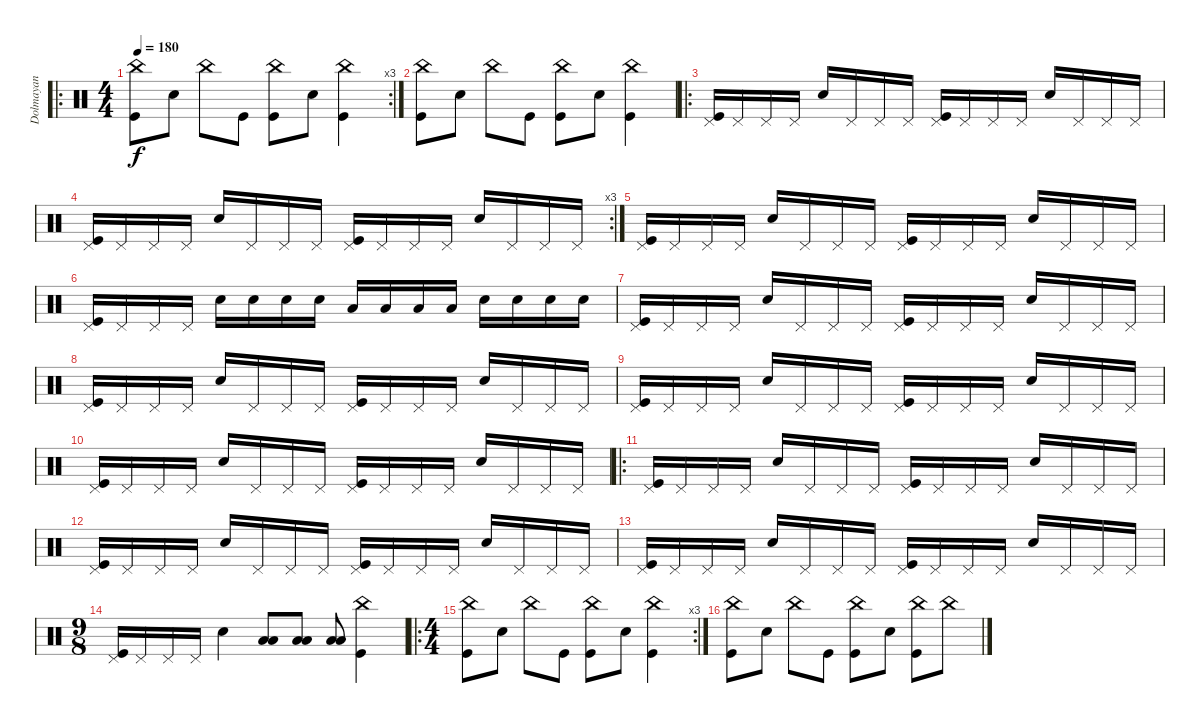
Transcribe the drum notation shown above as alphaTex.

\track ("Dolmayan" "Dolmayan") {instrument percussion}
\staff {score}
\articulation defaults
\ro
\rc 3
\ts (4 4)
\tempo 180
\clef neutral
\ks c
("China (hit)" "Kick (hit)").8{dy f} "Snare (hit) 2".8 "China (hit)".8 "Kick (hit)".8 ("China (hit)" "Kick (hit)").8 "Snare (hit) 2".8 ("China (hit)" "Kick (hit)").4 |
("China (hit)" "Kick (hit)").8 "Snare (hit) 2".8 "China (hit)".8 "Kick (hit)".8 ("China (hit)" "Kick (hit)").8 "Snare (hit) 2".8 ("China (hit)" "Kick (hit)").4 |
\ro
("Pedal Hi-Hat (hit)" "Kick (hit)").16 "Pedal Hi-Hat (hit)".16 "Pedal Hi-Hat (hit)".16 "Pedal Hi-Hat (hit)".16 "Snare (hit) 2".16 "Pedal Hi-Hat (hit)".16 "Pedal Hi-Hat (hit)".16 "Pedal Hi-Hat (hit)".16 ("Pedal Hi-Hat (hit)" "Kick (hit)").16 "Pedal Hi-Hat (hit)".16 "Pedal Hi-Hat (hit)".16 "Pedal Hi-Hat (hit)".16 "Snare (hit) 2".16 "Pedal Hi-Hat (hit)".16 "Pedal Hi-Hat (hit)".16 "Pedal Hi-Hat (hit)".16 |
\rc 3
("Pedal Hi-Hat (hit)" "Kick (hit)").16 "Pedal Hi-Hat (hit)".16 "Pedal Hi-Hat (hit)".16 "Pedal Hi-Hat (hit)".16 "Snare (hit) 2".16 "Pedal Hi-Hat (hit)".16 "Pedal Hi-Hat (hit)".16 "Pedal Hi-Hat (hit)".16 ("Pedal Hi-Hat (hit)" "Kick (hit)").16 "Pedal Hi-Hat (hit)".16 "Pedal Hi-Hat (hit)".16 "Pedal Hi-Hat (hit)".16 "Snare (hit) 2".16 "Pedal Hi-Hat (hit)".16 "Pedal Hi-Hat (hit)".16 "Pedal Hi-Hat (hit)".16 |
("Pedal Hi-Hat (hit)" "Kick (hit)").16 "Pedal Hi-Hat (hit)".16 "Pedal Hi-Hat (hit)".16 "Pedal Hi-Hat (hit)".16 "Snare (hit) 2".16 "Pedal Hi-Hat (hit)".16 "Pedal Hi-Hat (hit)".16 "Pedal Hi-Hat (hit)".16 ("Pedal Hi-Hat (hit)" "Kick (hit)").16 "Pedal Hi-Hat (hit)".16 "Pedal Hi-Hat (hit)".16 "Pedal Hi-Hat (hit)".16 "Snare (hit) 2".16 "Pedal Hi-Hat (hit)".16 "Pedal Hi-Hat (hit)".16 "Pedal Hi-Hat (hit)".16 |
("Pedal Hi-Hat (hit)" "Kick (hit)").16 "Pedal Hi-Hat (hit)".16 "Pedal Hi-Hat (hit)".16 "Pedal Hi-Hat (hit)".16 "Snare (hit) 2".16 "Snare (hit) 2".16 "Snare (hit) 2".16 "Snare (hit) 2".16 "Low Tom (hit)".16 "Low Tom (hit)".16 "Low Tom (hit)".16 "Low Tom (hit)".16 "Snare (hit) 2".16 "Snare (hit) 2".16 "Snare (hit) 2".16 "Snare (hit) 2".16 |
("Pedal Hi-Hat (hit)" "Kick (hit)").16 "Pedal Hi-Hat (hit)".16 "Pedal Hi-Hat (hit)".16 "Pedal Hi-Hat (hit)".16 "Snare (hit) 2".16 "Pedal Hi-Hat (hit)".16 "Pedal Hi-Hat (hit)".16 "Pedal Hi-Hat (hit)".16 ("Pedal Hi-Hat (hit)" "Kick (hit)").16 "Pedal Hi-Hat (hit)".16 "Pedal Hi-Hat (hit)".16 "Pedal Hi-Hat (hit)".16 "Snare (hit) 2".16 "Pedal Hi-Hat (hit)".16 "Pedal Hi-Hat (hit)".16 "Pedal Hi-Hat (hit)".16 |
("Pedal Hi-Hat (hit)" "Kick (hit)").16 "Pedal Hi-Hat (hit)".16 "Pedal Hi-Hat (hit)".16 "Pedal Hi-Hat (hit)".16 "Snare (hit) 2".16 "Pedal Hi-Hat (hit)".16 "Pedal Hi-Hat (hit)".16 "Pedal Hi-Hat (hit)".16 ("Pedal Hi-Hat (hit)" "Kick (hit)").16 "Pedal Hi-Hat (hit)".16 "Pedal Hi-Hat (hit)".16 "Pedal Hi-Hat (hit)".16 "Snare (hit) 2".16 "Pedal Hi-Hat (hit)".16 "Pedal Hi-Hat (hit)".16 "Pedal Hi-Hat (hit)".16 |
("Pedal Hi-Hat (hit)" "Kick (hit)").16 "Pedal Hi-Hat (hit)".16 "Pedal Hi-Hat (hit)".16 "Pedal Hi-Hat (hit)".16 "Snare (hit) 2".16 "Pedal Hi-Hat (hit)".16 "Pedal Hi-Hat (hit)".16 "Pedal Hi-Hat (hit)".16 ("Pedal Hi-Hat (hit)" "Kick (hit)").16 "Pedal Hi-Hat (hit)".16 "Pedal Hi-Hat (hit)".16 "Pedal Hi-Hat (hit)".16 "Snare (hit) 2".16 "Pedal Hi-Hat (hit)".16 "Pedal Hi-Hat (hit)".16 "Pedal Hi-Hat (hit)".16 |
("Pedal Hi-Hat (hit)" "Kick (hit)").16 "Pedal Hi-Hat (hit)".16 "Pedal Hi-Hat (hit)".16 "Pedal Hi-Hat (hit)".16 "Snare (hit) 2".16 "Pedal Hi-Hat (hit)".16 "Pedal Hi-Hat (hit)".16 "Pedal Hi-Hat (hit)".16 ("Pedal Hi-Hat (hit)" "Kick (hit)").16 "Pedal Hi-Hat (hit)".16 "Pedal Hi-Hat (hit)".16 "Pedal Hi-Hat (hit)".16 "Snare (hit) 2".16 "Pedal Hi-Hat (hit)".16 "Pedal Hi-Hat (hit)".16 "Pedal Hi-Hat (hit)".16 |
\ro
("Pedal Hi-Hat (hit)" "Kick (hit)").16 "Pedal Hi-Hat (hit)".16 "Pedal Hi-Hat (hit)".16 "Pedal Hi-Hat (hit)".16 "Snare (hit) 2".16 "Pedal Hi-Hat (hit)".16 "Pedal Hi-Hat (hit)".16 "Pedal Hi-Hat (hit)".16 ("Pedal Hi-Hat (hit)" "Kick (hit)").16 "Pedal Hi-Hat (hit)".16 "Pedal Hi-Hat (hit)".16 "Pedal Hi-Hat (hit)".16 "Snare (hit) 2".16 "Pedal Hi-Hat (hit)".16 "Pedal Hi-Hat (hit)".16 "Pedal Hi-Hat (hit)".16 |
("Pedal Hi-Hat (hit)" "Kick (hit)").16 "Pedal Hi-Hat (hit)".16 "Pedal Hi-Hat (hit)".16 "Pedal Hi-Hat (hit)".16 "Snare (hit) 2".16 "Pedal Hi-Hat (hit)".16 "Pedal Hi-Hat (hit)".16 "Pedal Hi-Hat (hit)".16 ("Pedal Hi-Hat (hit)" "Kick (hit)").16 "Pedal Hi-Hat (hit)".16 "Pedal Hi-Hat (hit)".16 "Pedal Hi-Hat (hit)".16 "Snare (hit) 2".16 "Pedal Hi-Hat (hit)".16 "Pedal Hi-Hat (hit)".16 "Pedal Hi-Hat (hit)".16 |
("Pedal Hi-Hat (hit)" "Kick (hit)").16 "Pedal Hi-Hat (hit)".16 "Pedal Hi-Hat (hit)".16 "Pedal Hi-Hat (hit)".16 "Snare (hit) 2".16 "Pedal Hi-Hat (hit)".16 "Pedal Hi-Hat (hit)".16 "Pedal Hi-Hat (hit)".16 ("Pedal Hi-Hat (hit)" "Kick (hit)").16 "Pedal Hi-Hat (hit)".16 "Pedal Hi-Hat (hit)".16 "Pedal Hi-Hat (hit)".16 "Snare (hit) 2".16 "Pedal Hi-Hat (hit)".16 "Pedal Hi-Hat (hit)".16 "Pedal Hi-Hat (hit)".16 |
\ts (9 8)
("Pedal Hi-Hat (hit)" "Kick (hit)").16 "Pedal Hi-Hat (hit)".16 "Pedal Hi-Hat (hit)".16 "Pedal Hi-Hat (hit)".16 "Snare (hit) 2".4 ("Low Tom (hit)" "Low Floor Tom (hit)").8 ("Low Tom (hit)" "Low Floor Tom (hit)").8 ("Low Tom (hit)" "Low Floor Tom (hit)").8 ("China (hit)" "Kick (hit)").4 |
\ro
\rc 3
\ts (4 4)
("China (hit)" "Kick (hit)").8 "Snare (hit) 2".8 "China (hit)".8 "Kick (hit)".8 ("China (hit)" "Kick (hit)").8 "Snare (hit) 2".8 ("China (hit)" "Kick (hit)").4 |
("China (hit)" "Kick (hit)").8 "Snare (hit) 2".8 "China (hit)".8 "Kick (hit)".8 ("China (hit)" "Kick (hit)").8 "Snare (hit) 2".8 ("China (hit)" "Kick (hit)").8 "China (hit)".8
